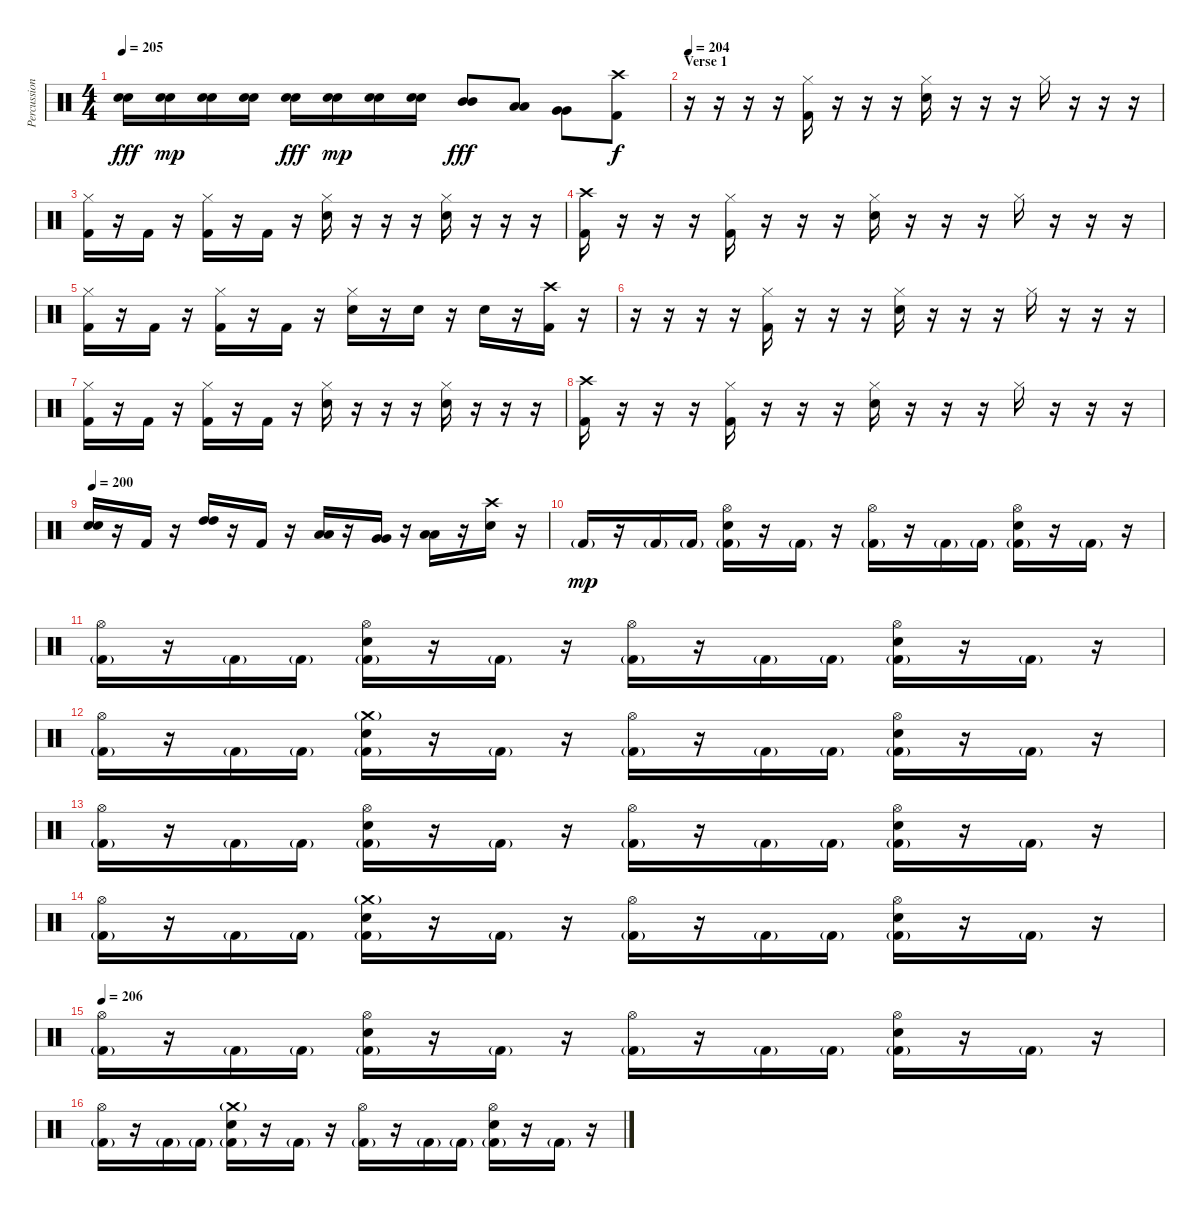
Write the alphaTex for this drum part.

\track ("Percussion" "Percussion") {instrument percussion}
\staff {score}
\articulation defaults
\ts (4 4)
\tempo 205
\clef neutral
\ks c
("Electric Snare (hit)" "Electric Snare (hit)").16{dy fff} ("Electric Snare (hit)" "Electric Snare (hit)").16{dy mp} ("Electric Snare (hit)" "Electric Snare (hit)").16 ("Electric Snare (hit)" "Electric Snare (hit)").16 ("Electric Snare (hit)" "Electric Snare (hit)").16{dy fff} ("Electric Snare (hit)" "Electric Snare (hit)").16{dy mp} ("Electric Snare (hit)" "Electric Snare (hit)").16 ("Electric Snare (hit)" "Electric Snare (hit)").16 ("Mid Tom (hit)" "Mid Tom (hit)").8{dy fff} ("Low Tom (hit)" "Low Tom (hit)").8 ("Very Low Tom (hit)" "Very Low Tom (hit)").8 ("Crash high (hit)" "Kick (hit) 2").8{dy f} |
\section ("" "Verse 1")
\tempo 204
r.16 r.16 r.16 r.16 ("Hi-Hat (closed)" "Kick (hit) 2").16 r.16 r.16 r.16 ("Hi-Hat (closed)" "Electric Snare (hit)").16 r.16 r.16 r.16 "Hi-Hat (closed)".16 r.16 r.16 r.16 |
("Hi-Hat (closed)" "Kick (hit) 2").16 r.16 "Kick (hit) 2".16 r.16 ("Hi-Hat (closed)" "Kick (hit) 2").16 r.16 "Kick (hit) 2".16 r.16 ("Hi-Hat (closed)" "Electric Snare (hit)").16 r.16 r.16 r.16 ("Hi-Hat (closed)" "Electric Snare (hit)").16 r.16 r.16 r.16 |
("Crash high (hit)" "Kick (hit) 2").16 r.16 r.16 r.16 ("Hi-Hat (closed)" "Kick (hit) 2").16 r.16 r.16 r.16 ("Hi-Hat (closed)" "Electric Snare (hit)").16 r.16 r.16 r.16 "Hi-Hat (closed)".16 r.16 r.16 r.16 |
("Hi-Hat (closed)" "Kick (hit) 2").16 r.16 "Kick (hit) 2".16 r.16 ("Hi-Hat (closed)" "Kick (hit) 2").16 r.16 "Kick (hit) 2".16 r.16 ("Hi-Hat (closed)" "Electric Snare (hit)").16 r.16 "Electric Snare (hit)".16 r.16 "Electric Snare (hit)".16 r.16 ("Crash high (hit)" "Kick (hit) 2").16 r.16 |
r.16 r.16 r.16 r.16 ("Hi-Hat (closed)" "Kick (hit) 2").16 r.16 r.16 r.16 ("Hi-Hat (closed)" "Electric Snare (hit)").16 r.16 r.16 r.16 "Hi-Hat (closed)".16 r.16 r.16 r.16 |
("Hi-Hat (closed)" "Kick (hit) 2").16 r.16 "Kick (hit) 2".16 r.16 ("Hi-Hat (closed)" "Kick (hit) 2").16 r.16 "Kick (hit) 2".16 r.16 ("Hi-Hat (closed)" "Electric Snare (hit)").16 r.16 r.16 r.16 ("Hi-Hat (closed)" "Electric Snare (hit)").16 r.16 r.16 r.16 |
("Crash high (hit)" "Kick (hit) 2").16 r.16 r.16 r.16 ("Hi-Hat (closed)" "Kick (hit) 2").16 r.16 r.16 r.16 ("Hi-Hat (closed)" "Electric Snare (hit)").16 r.16 r.16 r.16 "Hi-Hat (closed)".16 r.16 r.16 r.16 |
\tempo 200
("Electric Snare (hit)" "Electric Snare (hit)").16 r.16 "Kick (hit) 2".16 r.16 ("High Tom (hit)" "High Tom (hit)").16 r.16 "Kick (hit) 2".16 r.16 ("Low Tom (hit)" "Low Tom (hit)").16 r.16 ("Very Low Tom (hit)" "Very Low Tom (hit)").16 r.16 ("Low Floor Tom (hit)" "Low Floor Tom (hit)").16 r.16 ("Crash high (hit)" "Electric Snare (hit)").16 r.16 |
"Kick (hit) 2"{g}.16{dy mp} r.16 "Kick (hit) 2"{g}.16 "Kick (hit) 2"{g}.16 ("Hi-Hat (open)" "Electric Snare (hit)" "Kick (hit) 2"{g}).16 r.16 "Kick (hit) 2"{g}.16 r.16 ("Hi-Hat (open)" "Kick (hit) 2"{g}).16 r.16 "Kick (hit) 2"{g}.16 "Kick (hit) 2"{g}.16 ("Hi-Hat (open)" "Electric Snare (hit)" "Kick (hit) 2"{g}).16 r.16 "Kick (hit) 2"{g}.16 r.16 |
("Hi-Hat (open)" "Kick (hit) 2"{g}).16 r.16 "Kick (hit) 2"{g}.16 "Kick (hit) 2"{g}.16 ("Hi-Hat (open)" "Electric Snare (hit)" "Kick (hit) 2"{g}).16 r.16 "Kick (hit) 2"{g}.16 r.16 ("Hi-Hat (open)" "Kick (hit) 2"{g}).16 r.16 "Kick (hit) 2"{g}.16 "Kick (hit) 2"{g}.16 ("Hi-Hat (open)" "Electric Snare (hit)" "Kick (hit) 2"{g}).16 r.16 "Kick (hit) 2"{g}.16 r.16 |
("Hi-Hat (open)" "Kick (hit) 2"{g}).16 r.16 "Kick (hit) 2"{g}.16 "Kick (hit) 2"{g}.16 ("Crash medium (hit)"{g} "Electric Snare (hit)" "Kick (hit) 2"{g}).16 r.16 "Kick (hit) 2"{g}.16 r.16 ("Hi-Hat (open)" "Kick (hit) 2"{g}).16 r.16 "Kick (hit) 2"{g}.16 "Kick (hit) 2"{g}.16 ("Hi-Hat (open)" "Electric Snare (hit)" "Kick (hit) 2"{g}).16 r.16 "Kick (hit) 2"{g}.16 r.16 |
("Hi-Hat (open)" "Kick (hit) 2"{g}).16 r.16 "Kick (hit) 2"{g}.16 "Kick (hit) 2"{g}.16 ("Hi-Hat (open)" "Electric Snare (hit)" "Kick (hit) 2"{g}).16 r.16 "Kick (hit) 2"{g}.16 r.16 ("Hi-Hat (open)" "Kick (hit) 2"{g}).16 r.16 "Kick (hit) 2"{g}.16 "Kick (hit) 2"{g}.16 ("Hi-Hat (open)" "Electric Snare (hit)" "Kick (hit) 2"{g}).16 r.16 "Kick (hit) 2"{g}.16 r.16 |
("Hi-Hat (open)" "Kick (hit) 2"{g}).16 r.16 "Kick (hit) 2"{g}.16 "Kick (hit) 2"{g}.16 ("Crash medium (hit)"{g} "Electric Snare (hit)" "Kick (hit) 2"{g}).16 r.16 "Kick (hit) 2"{g}.16 r.16 ("Hi-Hat (open)" "Kick (hit) 2"{g}).16 r.16 "Kick (hit) 2"{g}.16 "Kick (hit) 2"{g}.16 ("Hi-Hat (open)" "Electric Snare (hit)" "Kick (hit) 2"{g}).16 r.16 "Kick (hit) 2"{g}.16 r.16 |
\tempo 206
("Hi-Hat (open)" "Kick (hit) 2"{g}).16 r.16 "Kick (hit) 2"{g}.16 "Kick (hit) 2"{g}.16 ("Hi-Hat (open)" "Electric Snare (hit)" "Kick (hit) 2"{g}).16 r.16 "Kick (hit) 2"{g}.16 r.16 ("Hi-Hat (open)" "Kick (hit) 2"{g}).16 r.16 "Kick (hit) 2"{g}.16 "Kick (hit) 2"{g}.16 ("Hi-Hat (open)" "Electric Snare (hit)" "Kick (hit) 2"{g}).16 r.16 "Kick (hit) 2"{g}.16 r.16 |
("Hi-Hat (open)" "Kick (hit) 2"{g}).16 r.16 "Kick (hit) 2"{g}.16 "Kick (hit) 2"{g}.16 ("Crash medium (hit)"{g} "Electric Snare (hit)" "Kick (hit) 2"{g}).16 r.16 "Kick (hit) 2"{g}.16 r.16 ("Hi-Hat (open)" "Kick (hit) 2"{g}).16 r.16 "Kick (hit) 2"{g}.16 "Kick (hit) 2"{g}.16 ("Hi-Hat (open)" "Electric Snare (hit)" "Kick (hit) 2"{g}).16 r.16 "Kick (hit) 2"{g}.16 r.16
